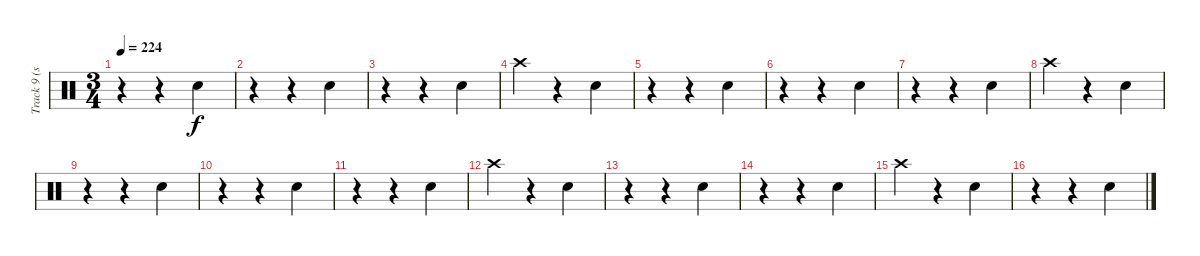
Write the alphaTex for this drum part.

\track ("Track 9 (snare)" "Track 9 (s") {instrument percussion}
\staff {score}
\articulation defaults
\ts (3 4)
\tempo 224
\clef neutral
\ks c
r.4{dy f} r.4 "Electric Snare (hit)".4 |
r.4 r.4 "Electric Snare (hit)".4 |
r.4 r.4 "Electric Snare (hit)".4 |
"Crash high (hit)".4 r.4 "Electric Snare (hit)".4 |
r.4 r.4 "Electric Snare (hit)".4 |
r.4 r.4 "Electric Snare (hit)".4 |
r.4 r.4 "Electric Snare (hit)".4 |
"Crash high (hit)".4 r.4 "Electric Snare (hit)".4 |
r.4 r.4 "Electric Snare (hit)".4 |
r.4 r.4 "Electric Snare (hit)".4 |
r.4 r.4 "Electric Snare (hit)".4 |
"Crash high (hit)".4 r.4 "Electric Snare (hit)".4 |
r.4 r.4 "Electric Snare (hit)".4 |
r.4 r.4 "Electric Snare (hit)".4 |
"Crash high (hit)".4 r.4 "Electric Snare (hit)".4 |
r.4 r.4 "Electric Snare (hit)".4
